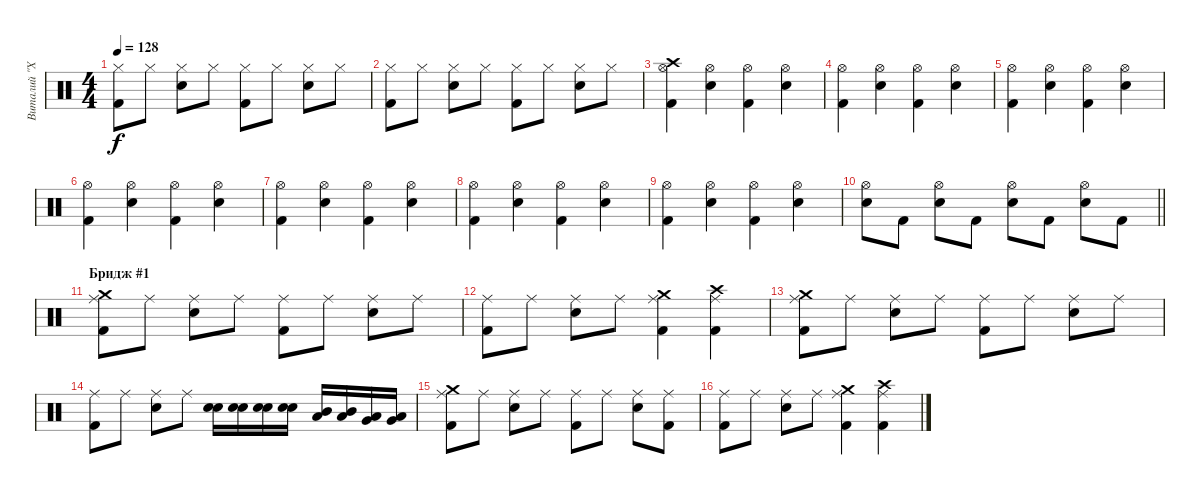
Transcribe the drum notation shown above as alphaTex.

\track ("Виталий \"Хамер\" Лядов" "Виталий \"Х") {instrument percussion}
\staff {score}
\articulation defaults
\ts (4 4)
\tempo 128
\clef neutral
\ks c
("Kick (hit) 2" "Hi-Hat (closed)").8{dy f} "Hi-Hat (closed)".8 ("Electric Snare (hit)" "Hi-Hat (closed)").8 "Hi-Hat (closed)".8 ("Kick (hit) 2" "Hi-Hat (closed)").8 "Hi-Hat (closed)".8 ("Electric Snare (hit)" "Hi-Hat (closed)").8 "Hi-Hat (closed)".8 |
("Kick (hit) 2" "Hi-Hat (closed)").8 "Hi-Hat (closed)".8 ("Electric Snare (hit)" "Hi-Hat (closed)").8 "Hi-Hat (closed)".8 ("Kick (hit) 2" "Hi-Hat (closed)").8 "Hi-Hat (closed)".8 ("Electric Snare (hit)" "Hi-Hat (closed)").8 "Hi-Hat (closed)".8 |
("Kick (hit) 2" "Hi-Hat (open)" "Crash high (hit)").4 ("Electric Snare (hit)" "Hi-Hat (open)").4 ("Kick (hit) 2" "Hi-Hat (open)").4 ("Electric Snare (hit)" "Hi-Hat (open)").4 |
("Kick (hit) 2" "Hi-Hat (open)").4 ("Electric Snare (hit)" "Hi-Hat (open)").4 ("Kick (hit) 2" "Hi-Hat (open)").4 ("Electric Snare (hit)" "Hi-Hat (open)").4 |
("Kick (hit) 2" "Hi-Hat (open)").4 ("Electric Snare (hit)" "Hi-Hat (open)").4 ("Kick (hit) 2" "Hi-Hat (open)").4 ("Electric Snare (hit)" "Hi-Hat (open)").4 |
("Kick (hit) 2" "Hi-Hat (open)").4 ("Electric Snare (hit)" "Hi-Hat (open)").4 ("Kick (hit) 2" "Hi-Hat (open)").4 ("Electric Snare (hit)" "Hi-Hat (open)").4 |
("Kick (hit) 2" "Hi-Hat (open)").4 ("Electric Snare (hit)" "Hi-Hat (open)").4 ("Kick (hit) 2" "Hi-Hat (open)").4 ("Electric Snare (hit)" "Hi-Hat (open)").4 |
("Kick (hit) 2" "Hi-Hat (open)").4 ("Electric Snare (hit)" "Hi-Hat (open)").4 ("Kick (hit) 2" "Hi-Hat (open)").4 ("Electric Snare (hit)" "Hi-Hat (open)").4 |
("Kick (hit) 2" "Hi-Hat (open)").4 ("Electric Snare (hit)" "Hi-Hat (open)").4 ("Kick (hit) 2" "Hi-Hat (open)").4 ("Electric Snare (hit)" "Hi-Hat (open)").4 |
\barLineRight lightlight
("Electric Snare (hit)" "Hi-Hat (open)").8 "Kick (hit) 2".8 ("Electric Snare (hit)" "Hi-Hat (open)").8 "Kick (hit) 2".8 ("Electric Snare (hit)" "Hi-Hat (open)").8 "Kick (hit) 2".8 ("Electric Snare (hit)" "Hi-Hat (open)").8 "Kick (hit) 2".8 |
\section ("" "Бридж #1")
("Kick (hit) 2" "Ride (middle)" "Crash medium (hit)").8 "Ride (middle)".8 ("Electric Snare (hit)" "Ride (middle)").8 "Ride (middle)".8 ("Kick (hit) 2" "Ride (middle)").8 "Ride (middle)".8 ("Electric Snare (hit)" "Ride (middle)").8 "Ride (middle)".8 |
("Kick (hit) 2" "Ride (middle)").8 "Ride (middle)".8 ("Electric Snare (hit)" "Ride (middle)").8 "Ride (middle)".8 ("Kick (hit) 2" "Ride (middle)" "Crash medium (hit)").4 ("Kick (hit) 2" "Ride (middle)" "Crash high (hit)").4 |
("Kick (hit) 2" "Ride (middle)" "Crash medium (hit)").8 "Ride (middle)".8 ("Electric Snare (hit)" "Ride (middle)").8 "Ride (middle)".8 ("Kick (hit) 2" "Ride (middle)").8 "Ride (middle)".8 ("Electric Snare (hit)" "Ride (middle)").8 "Ride (middle)".8 |
("Kick (hit) 2" "Ride (middle)").8 "Ride (middle)".8 ("Electric Snare (hit)" "Ride (middle)").8 "Ride (middle)".8 ("Electric Snare (hit)" "Electric Snare (hit)").16 ("Electric Snare (hit)" "Electric Snare (hit)").16 ("Electric Snare (hit)" "Electric Snare (hit)").16 ("Electric Snare (hit)" "Electric Snare (hit)").16 ("Mid Tom (hit)" "Low Tom (hit)").16 ("Mid Tom (hit)" "Low Tom (hit)").16 ("Low Tom (hit)" "Very Low Tom (hit)").16 ("Low Tom (hit)" "Very Low Tom (hit)").16 |
("Kick (hit) 2" "Ride (middle)" "Crash medium (hit)").8 "Ride (middle)".8 ("Electric Snare (hit)" "Ride (middle)").8 "Ride (middle)".8 ("Kick (hit) 2" "Ride (middle)").8 "Ride (middle)".8 ("Electric Snare (hit)" "Ride (middle)").8 ("Kick (hit) 2" "Ride (middle)").8 |
("Kick (hit) 2" "Ride (middle)").8 "Ride (middle)".8 ("Electric Snare (hit)" "Ride (middle)").8 "Ride (middle)".8 ("Kick (hit) 2" "Ride (middle)" "Crash medium (hit)").4 ("Kick (hit) 2" "Ride (middle)" "Crash high (hit)").4
